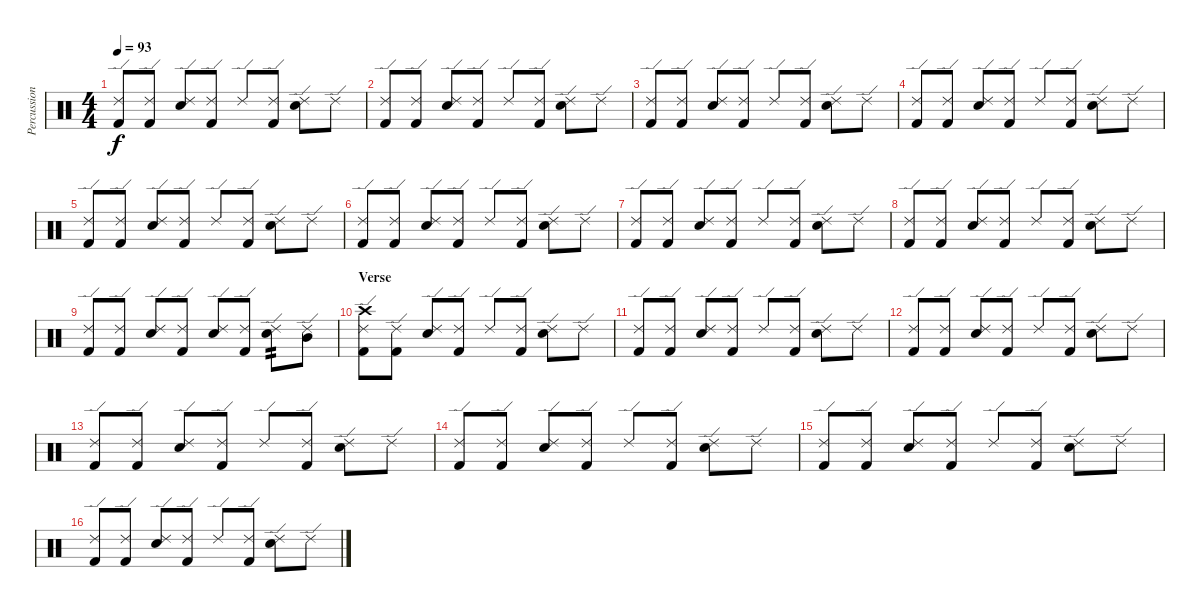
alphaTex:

\track ("Percussion" "Percussion") {instrument percussion}
\staff {score}
\articulation defaults
\ts (4 4)
\tempo 93
\clef neutral
\ks c
("Ride (edge) 2" "Kick (hit) 2").8{dy f} ("Ride (edge) 2" "Kick (hit) 2").8 ("Ride (edge) 2" "Electric Snare (hit)").8 ("Ride (edge) 2" "Kick (hit) 2").8 "Ride (edge) 2".8 ("Ride (edge) 2" "Kick (hit) 2").8 ("Ride (edge) 2" "Electric Snare (hit)").8 "Ride (edge) 2".8 |
("Ride (edge) 2" "Kick (hit) 2").8 ("Ride (edge) 2" "Kick (hit) 2").8 ("Ride (edge) 2" "Electric Snare (hit)").8 ("Ride (edge) 2" "Kick (hit) 2").8 "Ride (edge) 2".8 ("Ride (edge) 2" "Kick (hit) 2").8 ("Ride (edge) 2" "Electric Snare (hit)").8 "Ride (edge) 2".8 |
("Ride (edge) 2" "Kick (hit) 2").8 ("Ride (edge) 2" "Kick (hit) 2").8 ("Ride (edge) 2" "Electric Snare (hit)").8 ("Ride (edge) 2" "Kick (hit) 2").8 "Ride (edge) 2".8 ("Ride (edge) 2" "Kick (hit) 2").8 ("Ride (edge) 2" "Electric Snare (hit)").8 "Ride (edge) 2".8 |
("Ride (edge) 2" "Kick (hit) 2").8 ("Ride (edge) 2" "Kick (hit) 2").8 ("Ride (edge) 2" "Electric Snare (hit)").8 ("Ride (edge) 2" "Kick (hit) 2").8 "Ride (edge) 2".8 ("Ride (edge) 2" "Kick (hit) 2").8 ("Ride (edge) 2" "Electric Snare (hit)").8 "Ride (edge) 2".8 |
("Ride (edge) 2" "Kick (hit) 2").8 ("Ride (edge) 2" "Kick (hit) 2").8 ("Ride (edge) 2" "Electric Snare (hit)").8 ("Ride (edge) 2" "Kick (hit) 2").8 "Ride (edge) 2".8 ("Ride (edge) 2" "Kick (hit) 2").8 ("Ride (edge) 2" "Electric Snare (hit)").8 "Ride (edge) 2".8 |
("Ride (edge) 2" "Kick (hit) 2").8 ("Ride (edge) 2" "Kick (hit) 2").8 ("Ride (edge) 2" "Electric Snare (hit)").8 ("Ride (edge) 2" "Kick (hit) 2").8 "Ride (edge) 2".8 ("Ride (edge) 2" "Kick (hit) 2").8 ("Ride (edge) 2" "Electric Snare (hit)").8 "Ride (edge) 2".8 |
("Ride (edge) 2" "Kick (hit) 2").8 ("Ride (edge) 2" "Kick (hit) 2").8 ("Ride (edge) 2" "Electric Snare (hit)").8 ("Ride (edge) 2" "Kick (hit) 2").8 "Ride (edge) 2".8 ("Ride (edge) 2" "Kick (hit) 2").8 ("Ride (edge) 2" "Electric Snare (hit)").8 "Ride (edge) 2".8 |
("Ride (edge) 2" "Kick (hit) 2").8 ("Ride (edge) 2" "Kick (hit) 2").8 ("Ride (edge) 2" "Electric Snare (hit)").8 ("Ride (edge) 2" "Kick (hit) 2").8 "Ride (edge) 2".8 ("Ride (edge) 2" "Kick (hit) 2").8 ("Ride (edge) 2" "Electric Snare (hit)").8 "Ride (edge) 2".8 |
("Ride (edge) 2" "Kick (hit) 2").8 ("Ride (edge) 2" "Kick (hit) 2").8 ("Ride (edge) 2" "Electric Snare (hit)").8 ("Ride (edge) 2" "Kick (hit) 2").8 ("Ride (edge) 2" "Electric Snare (hit)").8 ("Ride (edge) 2" "Kick (hit) 2").8 ("Ride (edge) 2" "Electric Snare (hit)").8{tp 2} ("Ride (edge) 2" "Mid Tom (hit)").8 |
\section ("" "Verse")
("Ride (edge) 2" "Crash high (hit)" "Kick (hit) 2").8 ("Ride (edge) 2" "Kick (hit) 2").8 ("Ride (edge) 2" "Electric Snare (hit)").8 ("Ride (edge) 2" "Kick (hit) 2").8 "Ride (edge) 2".8 ("Ride (edge) 2" "Kick (hit) 2").8 ("Ride (edge) 2" "Electric Snare (hit)").8 "Ride (edge) 2".8 |
("Ride (edge) 2" "Kick (hit) 2").8 ("Ride (edge) 2" "Kick (hit) 2").8 ("Ride (edge) 2" "Electric Snare (hit)").8 ("Ride (edge) 2" "Kick (hit) 2").8 "Ride (edge) 2".8 ("Ride (edge) 2" "Kick (hit) 2").8 ("Ride (edge) 2" "Electric Snare (hit)").8 "Ride (edge) 2".8 |
("Ride (edge) 2" "Kick (hit) 2").8 ("Ride (edge) 2" "Kick (hit) 2").8 ("Ride (edge) 2" "Electric Snare (hit)").8 ("Ride (edge) 2" "Kick (hit) 2").8 "Ride (edge) 2".8 ("Ride (edge) 2" "Kick (hit) 2").8 ("Ride (edge) 2" "Electric Snare (hit)").8 "Ride (edge) 2".8 |
("Ride (edge) 2" "Kick (hit) 2").8 ("Ride (edge) 2" "Kick (hit) 2").8 ("Ride (edge) 2" "Electric Snare (hit)").8 ("Ride (edge) 2" "Kick (hit) 2").8 "Ride (edge) 2".8 ("Ride (edge) 2" "Kick (hit) 2").8 ("Ride (edge) 2" "Electric Snare (hit)").8 "Ride (edge) 2".8 |
("Ride (edge) 2" "Kick (hit) 2").8 ("Ride (edge) 2" "Kick (hit) 2").8 ("Ride (edge) 2" "Electric Snare (hit)").8 ("Ride (edge) 2" "Kick (hit) 2").8 "Ride (edge) 2".8 ("Ride (edge) 2" "Kick (hit) 2").8 ("Ride (edge) 2" "Electric Snare (hit)").8 "Ride (edge) 2".8 |
("Ride (edge) 2" "Kick (hit) 2").8 ("Ride (edge) 2" "Kick (hit) 2").8 ("Ride (edge) 2" "Electric Snare (hit)").8 ("Ride (edge) 2" "Kick (hit) 2").8 "Ride (edge) 2".8 ("Ride (edge) 2" "Kick (hit) 2").8 ("Ride (edge) 2" "Electric Snare (hit)").8 "Ride (edge) 2".8 |
("Ride (edge) 2" "Kick (hit) 2").8 ("Ride (edge) 2" "Kick (hit) 2").8 ("Ride (edge) 2" "Electric Snare (hit)").8 ("Ride (edge) 2" "Kick (hit) 2").8 "Ride (edge) 2".8 ("Ride (edge) 2" "Kick (hit) 2").8 ("Ride (edge) 2" "Electric Snare (hit)").8 "Ride (edge) 2".8
